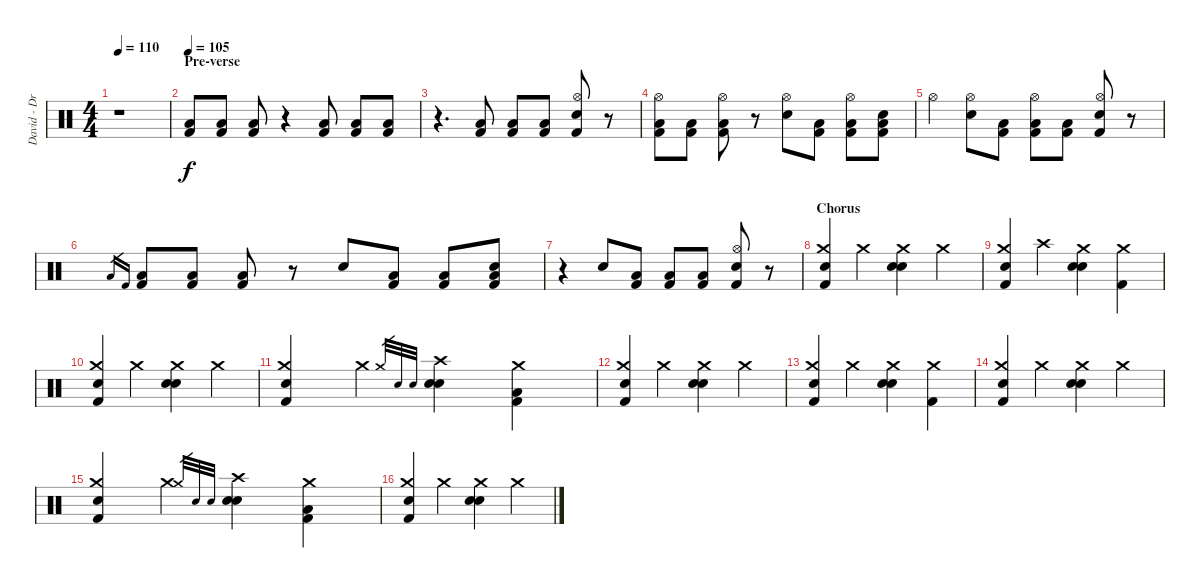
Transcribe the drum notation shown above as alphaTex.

\track ("David - Drums" "David - Dr") {instrument percussion}
\staff {score}
\articulation defaults
\ts (4 4)
\tempo 110
\clef neutral
\ks c
r.1{dy f} |
\section ("" "Pre-verse")
\tempo 105
("Low Floor Tom (hit)" "Kick (hit) 2").8{volume 16 balance 8} ("Low Floor Tom (hit)" "Kick (hit) 2").8 ("Low Floor Tom (hit)" "Kick (hit) 2").8 r.4 ("Low Floor Tom (hit)" "Kick (hit) 2").8 ("Low Floor Tom (hit)" "Kick (hit) 2").8 ("Low Floor Tom (hit)" "Kick (hit) 2").8 |
r.4{d} ("Low Floor Tom (hit)" "Kick (hit) 2").8 ("Low Floor Tom (hit)" "Kick (hit) 2").8 ("Low Floor Tom (hit)" "Kick (hit) 2").8 ("Hi-Hat (open)" "Electric Snare (hit)" "Kick (hit) 2").8 r.8 |
("Hi-Hat (open)" "Low Floor Tom (hit)" "Kick (hit) 2").8 ("Low Floor Tom (hit)" "Kick (hit) 2").8 ("Hi-Hat (open)" "Low Floor Tom (hit)" "Kick (hit) 2").8 r.8 ("Hi-Hat (open)" "Electric Snare (hit)").8 ("Low Floor Tom (hit)" "Kick (hit) 2").8 ("Hi-Hat (open)" "Low Floor Tom (hit)" "Kick (hit) 2").8 ("Electric Snare (hit)" "Low Floor Tom (hit)" "Kick (hit) 2").8 |
"Hi-Hat (open)".4 ("Hi-Hat (open)" "Electric Snare (hit)").8 ("Low Floor Tom (hit)" "Kick (hit) 2").8 ("Hi-Hat (open)" "Low Floor Tom (hit)" "Kick (hit) 2").8 ("Low Floor Tom (hit)" "Kick (hit) 2").8 ("Hi-Hat (open)" "Electric Snare (hit)" "Kick (hit) 2").8 r.8 |
"Low Floor Tom (hit)".16{gr} "Kick (hit) 2".16{gr} ("Low Floor Tom (hit)" "Kick (hit) 2").8 ("Low Floor Tom (hit)" "Kick (hit) 2").8 ("Low Floor Tom (hit)" "Kick (hit) 2").8 r.8 "Electric Snare (hit)".8 ("Low Floor Tom (hit)" "Kick (hit) 2").8 ("Low Floor Tom (hit)" "Kick (hit) 2").8 ("Electric Snare (hit)" "Low Floor Tom (hit)" "Kick (hit) 2").8 |
r.4 "Electric Snare (hit)".8 ("Low Floor Tom (hit)" "Kick (hit) 2").8 ("Low Floor Tom (hit)" "Kick (hit) 2").8 ("Low Floor Tom (hit)" "Kick (hit) 2").8 ("Hi-Hat (open)" "Electric Snare (hit)" "Kick (hit) 2").8 r.8 |
\section ("" "Chorus")
("Crash medium (hit)" "Snare (hit) 2" "Kick (hit) 2").4 "Crash medium (hit)".4 ("Crash medium (hit)" "Electric Snare (hit)" "Snare (hit) 2").4 "Crash medium (hit)".4 |
("Crash medium (hit)" "Snare (hit) 2" "Kick (hit) 2").4 "Crash high (hit)".4 ("Crash medium (hit)" "Electric Snare (hit)" "Snare (hit) 2").4 ("Crash medium (hit)" "Kick (hit) 2").4 |
("Crash medium (hit)" "Snare (hit) 2" "Kick (hit) 2").4 "Crash medium (hit)".4 ("Crash medium (hit)" "Electric Snare (hit)" "Snare (hit) 2").4 "Crash medium (hit)".4 |
("Crash medium (hit)" "Snare (hit) 2" "Kick (hit) 2").4 "Crash medium (hit)".4 "Crash medium (hit)".32{gr} "Electric Snare (hit)".32{gr} "Snare (hit) 2".32{gr} ("Crash high (hit)" "Electric Snare (hit)" "Snare (hit) 2").4 ("Crash medium (hit)" "Low Floor Tom (hit)" "Kick (hit) 2").4 |
("Crash medium (hit)" "Snare (hit) 2" "Kick (hit) 2").4 "Crash medium (hit)".4 ("Crash medium (hit)" "Electric Snare (hit)" "Snare (hit) 2").4 "Crash medium (hit)".4 |
("Crash medium (hit)" "Snare (hit) 2" "Kick (hit) 2").4 "Crash medium (hit)".4 ("Crash medium (hit)" "Electric Snare (hit)" "Snare (hit) 2").4 ("Crash medium (hit)" "Kick (hit) 2").4 |
("Crash medium (hit)" "Snare (hit) 2" "Kick (hit) 2").4 "Crash medium (hit)".4 ("Crash medium (hit)" "Electric Snare (hit)" "Snare (hit) 2").4 "Crash medium (hit)".4 |
("Crash medium (hit)" "Snare (hit) 2" "Kick (hit) 2").4 "Crash medium (hit)".4 "Crash medium (hit)".32{gr} "Electric Snare (hit)".32{gr} "Snare (hit) 2".32{gr} ("Crash high (hit)" "Electric Snare (hit)" "Snare (hit) 2").4 ("Crash medium (hit)" "Low Floor Tom (hit)" "Kick (hit) 2").4 |
("Crash medium (hit)" "Snare (hit) 2" "Kick (hit) 2").4 "Crash medium (hit)".4 ("Crash medium (hit)" "Electric Snare (hit)" "Snare (hit) 2").4 "Crash medium (hit)".4
